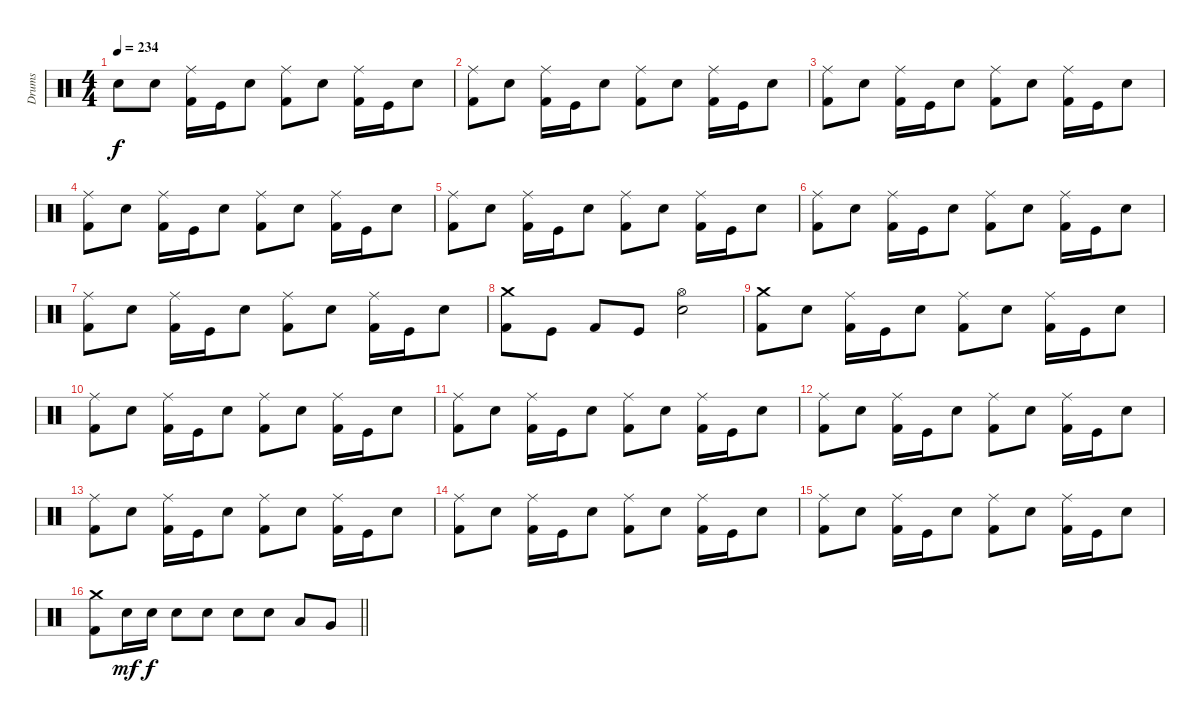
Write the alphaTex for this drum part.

\track ("Drums" "Drums") {instrument percussion}
\staff {score}
\articulation defaults
\ts (4 4)
\tempo 234
\clef neutral
\ks c "Snare (hit) 2".8{dy f} "Snare (hit) 2".8
("Ride (middle)" "Kick (hit) 2").16 "Kick (hit)".16 "Snare (hit) 2".8 ("Ride (middle)" "Kick (hit) 2").8 "Snare (hit) 2".8 ("Ride (middle)" "Kick (hit) 2").16 "Kick (hit)".16 "Snare (hit) 2".8 |
("Ride (middle)" "Kick (hit) 2").8 "Snare (hit) 2".8 ("Ride (middle)" "Kick (hit) 2").16 "Kick (hit)".16 "Snare (hit) 2".8 ("Ride (middle)" "Kick (hit) 2").8 "Snare (hit) 2".8 ("Ride (middle)" "Kick (hit) 2").16 "Kick (hit)".16 "Snare (hit) 2".8 |
("Ride (middle)" "Kick (hit) 2").8 "Snare (hit) 2".8 ("Ride (middle)" "Kick (hit) 2").16 "Kick (hit)".16 "Snare (hit) 2".8 ("Ride (middle)" "Kick (hit) 2").8 "Snare (hit) 2".8 ("Ride (middle)" "Kick (hit) 2").16 "Kick (hit)".16 "Snare (hit) 2".8 |
("Ride (middle)" "Kick (hit) 2").8 "Snare (hit) 2".8 ("Ride (middle)" "Kick (hit) 2").16 "Kick (hit)".16 "Snare (hit) 2".8 ("Ride (middle)" "Kick (hit) 2").8 "Snare (hit) 2".8 ("Ride (middle)" "Kick (hit) 2").16 "Kick (hit)".16 "Snare (hit) 2".8 |
("Ride (middle)" "Kick (hit) 2").8 "Snare (hit) 2".8 ("Ride (middle)" "Kick (hit) 2").16 "Kick (hit)".16 "Snare (hit) 2".8 ("Ride (middle)" "Kick (hit) 2").8 "Snare (hit) 2".8 ("Ride (middle)" "Kick (hit) 2").16 "Kick (hit)".16 "Snare (hit) 2".8 |
("Ride (middle)" "Kick (hit) 2").8 "Snare (hit) 2".8 ("Ride (middle)" "Kick (hit) 2").16 "Kick (hit)".16 "Snare (hit) 2".8 ("Ride (middle)" "Kick (hit) 2").8 "Snare (hit) 2".8 ("Ride (middle)" "Kick (hit) 2").16 "Kick (hit)".16 "Snare (hit) 2".8 |
("Ride (middle)" "Kick (hit) 2").8 "Snare (hit) 2".8 ("Ride (middle)" "Kick (hit) 2").16 "Kick (hit)".16 "Snare (hit) 2".8 ("Ride (middle)" "Kick (hit) 2").8 "Snare (hit) 2".8 ("Ride (middle)" "Kick (hit) 2").16 "Kick (hit)".16 "Snare (hit) 2".8 |
("Crash medium (hit)" "Kick (hit) 2").8 "Kick (hit)".8 "Kick (hit) 2".8 "Kick (hit)".8 ("Hi-Hat (open)" "Snare (hit) 2").2 |
("Crash medium (hit)" "Kick (hit) 2").8 "Snare (hit) 2".8 ("Ride (middle)" "Kick (hit) 2").16 "Kick (hit)".16 "Snare (hit) 2".8 ("Ride (middle)" "Kick (hit) 2").8 "Snare (hit) 2".8 ("Ride (middle)" "Kick (hit) 2").16 "Kick (hit)".16 "Snare (hit) 2".8 |
("Ride (middle)" "Kick (hit) 2").8 "Snare (hit) 2".8 ("Ride (middle)" "Kick (hit) 2").16 "Kick (hit)".16 "Snare (hit) 2".8 ("Ride (middle)" "Kick (hit) 2").8 "Snare (hit) 2".8 ("Ride (middle)" "Kick (hit) 2").16 "Kick (hit)".16 "Snare (hit) 2".8 |
("Ride (middle)" "Kick (hit) 2").8 "Snare (hit) 2".8 ("Ride (middle)" "Kick (hit) 2").16 "Kick (hit)".16 "Snare (hit) 2".8 ("Ride (middle)" "Kick (hit) 2").8 "Snare (hit) 2".8 ("Ride (middle)" "Kick (hit) 2").16 "Kick (hit)".16 "Snare (hit) 2".8 |
("Ride (middle)" "Kick (hit) 2").8 "Snare (hit) 2".8 ("Ride (middle)" "Kick (hit) 2").16 "Kick (hit)".16 "Snare (hit) 2".8 ("Ride (middle)" "Kick (hit) 2").8 "Snare (hit) 2".8 ("Ride (middle)" "Kick (hit) 2").16 "Kick (hit)".16 "Snare (hit) 2".8 |
("Ride (middle)" "Kick (hit) 2").8 "Snare (hit) 2".8 ("Ride (middle)" "Kick (hit) 2").16 "Kick (hit)".16 "Snare (hit) 2".8 ("Ride (middle)" "Kick (hit) 2").8 "Snare (hit) 2".8 ("Ride (middle)" "Kick (hit) 2").16 "Kick (hit)".16 "Snare (hit) 2".8 |
("Ride (middle)" "Kick (hit) 2").8 "Snare (hit) 2".8 ("Ride (middle)" "Kick (hit) 2").16 "Kick (hit)".16 "Snare (hit) 2".8 ("Ride (middle)" "Kick (hit) 2").8 "Snare (hit) 2".8 ("Ride (middle)" "Kick (hit) 2").16 "Kick (hit)".16 "Snare (hit) 2".8 |
("Ride (middle)" "Kick (hit) 2").8 "Snare (hit) 2".8 ("Ride (middle)" "Kick (hit) 2").16 "Kick (hit)".16 "Snare (hit) 2".8 ("Ride (middle)" "Kick (hit) 2").8 "Snare (hit) 2".8 ("Ride (middle)" "Kick (hit) 2").16 "Kick (hit)".16 "Snare (hit) 2".8 |
\barLineRight lightlight
("Crash medium (hit)" "Kick (hit) 2").8 "Snare (hit) 2".16{dy mf} "Snare (hit) 2".16{dy f} "Snare (hit) 2".8 "Snare (hit) 2".8 "Snare (hit) 2".8 "Snare (hit) 2".8 "Low Tom (hit)".8 "Very Low Tom (hit)".8
